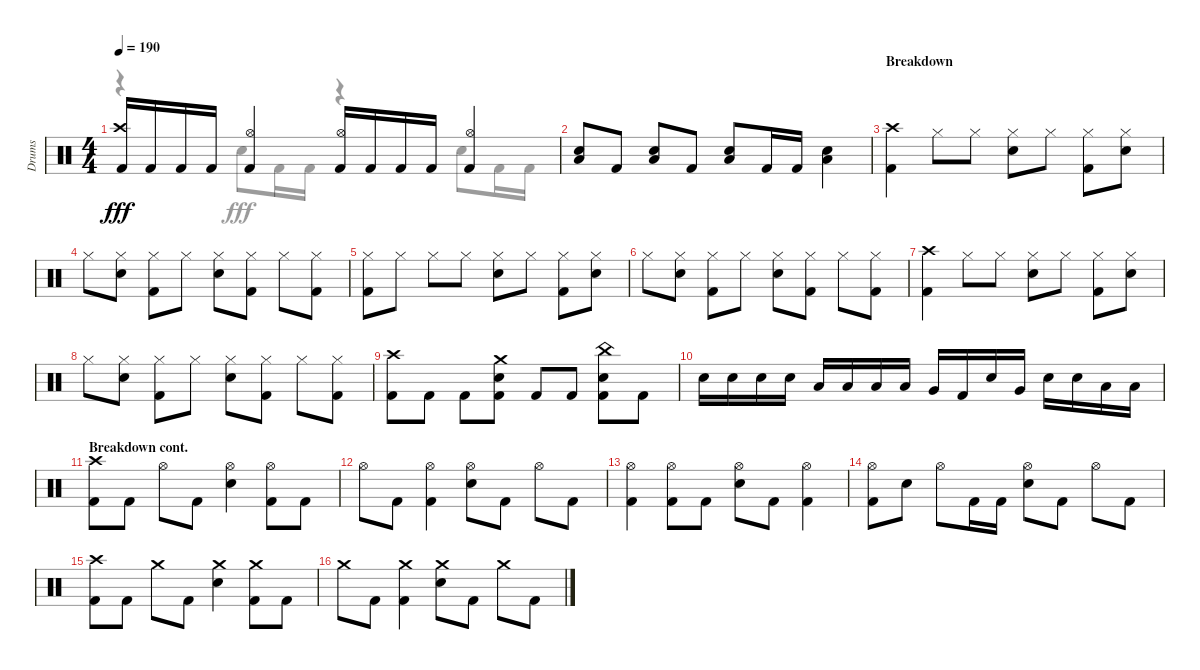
\track ("Drums" "Drums") {instrument percussion}
\staff {score}
\articulation defaults
\voice
\ts (4 4)
\tempo 190
\clef neutral
\ks aminor
("Crash high (hit)" "Kick (hit) 2").16{dy fff} "Kick (hit) 2".16 "Kick (hit) 2".16 "Kick (hit) 2".16 ("Kick (hit) 2" "Hi-Hat (open)").4 ("Hi-Hat (open)" "Kick (hit) 2").16 "Kick (hit) 2".16 "Kick (hit) 2".16 "Kick (hit) 2".16 ("Hi-Hat (open)" "Kick (hit) 2").4 |
("Snare (hit) 2" "Low Floor Tom (hit)").8 "Kick (hit) 2".8 ("Low Floor Tom (hit)" "Snare (hit) 2").8 "Kick (hit) 2".8 ("Low Floor Tom (hit)" "Snare (hit) 2").8 "Kick (hit) 2".16 "Kick (hit) 2".16 ("Snare (hit) 2" "Low Floor Tom (hit)").4 |
\section ("" "Breakdown")
("Crash high (hit)" "Kick (hit) 2").4 "Hi-Hat (closed)".8 "Hi-Hat (closed)".8 ("Hi-Hat (closed)" "Snare (hit) 2").8 "Hi-Hat (closed)".8 ("Kick (hit) 2" "Hi-Hat (closed)").8 ("Hi-Hat (closed)" "Snare (hit) 2").8 |
"Hi-Hat (closed)".8 ("Hi-Hat (closed)" "Snare (hit) 2").8 ("Kick (hit) 2" "Hi-Hat (closed)").8 "Hi-Hat (closed)".8 ("Snare (hit) 2" "Hi-Hat (closed)").8 ("Kick (hit) 2" "Hi-Hat (closed)").8 "Hi-Hat (closed)".8 ("Kick (hit) 2" "Hi-Hat (closed)").8 |
("Hi-Hat (closed)" "Kick (hit) 2").8 "Hi-Hat (closed)".8 "Hi-Hat (closed)".8 "Hi-Hat (closed)".8 ("Snare (hit) 2" "Hi-Hat (closed)").8 "Hi-Hat (closed)".8 ("Hi-Hat (closed)" "Kick (hit) 2").8 ("Snare (hit) 2" "Hi-Hat (closed)").8 |
"Hi-Hat (closed)".8 ("Hi-Hat (closed)" "Snare (hit) 2").8 ("Hi-Hat (closed)" "Kick (hit) 2").8 "Hi-Hat (closed)".8 ("Hi-Hat (closed)" "Snare (hit) 2").8 ("Hi-Hat (closed)" "Kick (hit) 2").8 "Hi-Hat (closed)".8 ("Hi-Hat (closed)" "Kick (hit) 2").8 |
("Crash high (hit)" "Kick (hit) 2").4 "Hi-Hat (closed)".8 "Hi-Hat (closed)".8 ("Snare (hit) 2" "Hi-Hat (closed)").8 "Hi-Hat (closed)".8 ("Hi-Hat (closed)" "Kick (hit) 2").8 ("Snare (hit) 2" "Hi-Hat (closed)").8 |
"Hi-Hat (closed)".8 ("Snare (hit) 2" "Hi-Hat (closed)").8 ("Hi-Hat (closed)" "Kick (hit) 2").8 "Hi-Hat (closed)".8 ("Snare (hit) 2" "Hi-Hat (closed)").8 ("Hi-Hat (closed)" "Kick (hit) 2").8 "Hi-Hat (closed)".8 ("Kick (hit) 2" "Hi-Hat (closed)").8 |
("Crash high (hit)" "Kick (hit) 2").8 "Kick (hit) 2".8 "Kick (hit) 2".8 ("Crash medium (hit)" "Snare (hit) 2" "Kick (hit) 2").8 "Kick (hit) 2".8 "Kick (hit) 2".8 ("Snare (hit) 2" "China (hit)" "Kick (hit) 2").8 "Kick (hit) 2".8 |
"Snare (hit) 2".16 "Snare (hit) 2".16 "Snare (hit) 2".16 "Snare (hit) 2".16 "Low Tom (hit)".16 "Low Tom (hit)".16 "Low Tom (hit)".16 "Low Tom (hit)".16 "Very Low Tom (hit)".16 "Kick (hit) 2".16 "Snare (hit) 2".16 "Very Low Tom (hit)".16 "Snare (hit) 2".16 "Snare (hit) 2".16 "Low Floor Tom (hit)".16 "Low Floor Tom (hit)".16 |
\section ("" "Breakdown cont.")
("Kick (hit) 2" "Crash high (hit)").8 "Kick (hit) 2".8 "Hi-Hat (open)".8 "Kick (hit) 2".8 ("Snare (hit) 2" "Hi-Hat (open)").4 ("Kick (hit) 2" "Hi-Hat (open)").8 "Kick (hit) 2".8 |
"Hi-Hat (open)".8 "Kick (hit) 2".8 ("Kick (hit) 2" "Hi-Hat (open)").4 ("Snare (hit) 2" "Hi-Hat (open)").8 "Kick (hit) 2".8 "Hi-Hat (open)".8 "Kick (hit) 2".8 |
("Kick (hit) 2" "Hi-Hat (open)").4 ("Hi-Hat (open)" "Kick (hit) 2").8 "Kick (hit) 2".8 ("Snare (hit) 2" "Hi-Hat (open)").8 "Kick (hit) 2".8 ("Kick (hit) 2" "Hi-Hat (open)").4 |
("Kick (hit) 2" "Hi-Hat (open)").8 "Snare (hit) 2".8 "Hi-Hat (open)".8 "Kick (hit) 2".16 "Kick (hit) 2".16 ("Hi-Hat (open)" "Snare (hit) 2").8 "Kick (hit) 2".8 "Hi-Hat (open)".8 "Kick (hit) 2".8 |
("Crash high (hit)" "Kick (hit) 2").8 "Kick (hit) 2".8 "Crash medium (hit)".8 "Kick (hit) 2".8 ("Snare (hit) 2" "Crash medium (hit)").4 ("Kick (hit) 2" "Crash medium (hit)").8 "Kick (hit) 2".8 |
"Crash medium (hit)".8 "Kick (hit) 2".8 ("Kick (hit) 2" "Crash medium (hit)").4 ("Crash medium (hit)" "Snare (hit) 2").8 "Kick (hit) 2".8 "Crash medium (hit)".8 "Kick (hit) 2".8
\voice
\clef neutral
\ottava regular
\simile none
\ks aminor
r.4{dy fff} "Snare (hit) 2".8 "Kick (hit) 2".16 "Kick (hit) 2".16 r.4 "Snare (hit) 2".8 "Kick (hit) 2".16 "Kick (hit) 2".16 |
|
|
|
|
|
|
|
|
|
|
|
|
|
|
